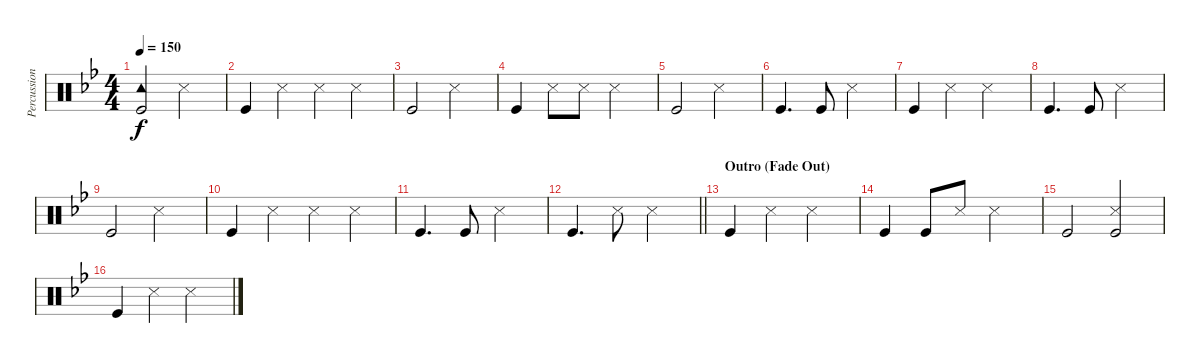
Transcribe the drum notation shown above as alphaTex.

\track ("Percussion" "Percussion") {instrument percussion}
\staff {score}
\articulation defaults
\ts (4 4)
\tempo 150
\clef neutral
\ks gminor
("Tambourine (hit)" "Kick (hit)").2{dy f} "Snare (side stick) 3".2 |
"Kick (hit)".4 "Snare (side stick) 3".4 "Snare (side stick) 3".4 "Snare (side stick) 3".4 |
"Kick (hit)".2 "Snare (side stick) 3".2 |
"Kick (hit)".4 "Snare (side stick) 3".8 "Snare (side stick) 3".8 "Snare (side stick) 3".2 |
"Kick (hit)".2 "Snare (side stick) 3".2 |
"Kick (hit)".4{d} "Kick (hit)".8 "Snare (side stick) 3".2 |
"Kick (hit)".4 "Snare (side stick) 3".4 "Snare (side stick) 3".2 |
"Kick (hit)".4{d} "Kick (hit)".8 "Snare (side stick) 3".2 |
"Kick (hit)".2 "Snare (side stick) 3".2 |
"Kick (hit)".4 "Snare (side stick) 3".4 "Snare (side stick) 3".4 "Snare (side stick) 3".4 |
"Kick (hit)".4{d} "Kick (hit)".8 "Snare (side stick) 3".2 |
\barLineRight lightlight "Kick (hit)".4{d} "Snare (side stick) 3".8 "Snare (side stick) 3".2
|
\section ("" "Outro (Fade Out)")
"Kick (hit)".4{volume 12} "Snare (side stick) 3".4 "Snare (side stick) 3".2 |
"Kick (hit)".4 "Kick (hit)".8 "Snare (side stick) 3".8 "Snare (side stick) 3".2 |
"Kick (hit)".2 ("Snare (side stick) 3" "Kick (hit)").2 |
"Kick (hit)".4 "Snare (side stick) 3".4 "Snare (side stick) 3".2
